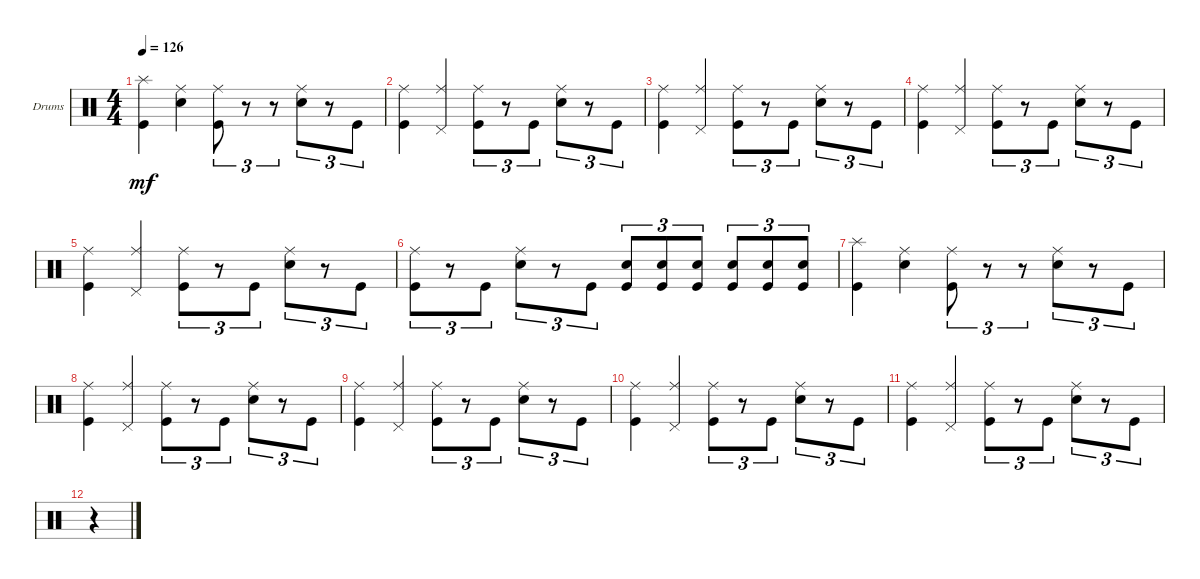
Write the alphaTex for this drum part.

\defaultSystemsLayout 4
\bracketExtendMode groupsimilarinstruments
\firstSystemTrackNameOrientation horizontal
\otherSystemsTrackNameOrientation horizontal
\track ("Drumkit" "Drums") {instrument percussion}
\staff {score}
\articulation defaults
\ts (4 4)
\tempo 126
\clef neutral
\ks c
("Splash (hit)" "Kick (hit)").4{dy mf} ("Ride (middle)" "Snare (hit) 2").4 ("Ride (middle)" "Kick (hit)").8{tu (3 2)} r.8{tu (3 2)} r.8{tu (3 2)} ("Ride (middle)" "Snare (hit) 2").8{tu (3 2)} r.8{tu (3 2)} "Kick (hit)".8{tu (3 2)} |
("Ride (middle)" "Kick (hit)").4 ("Ride (middle)" "Pedal Hi-Hat (hit)").4 ("Ride (middle)" "Kick (hit)").8{tu (3 2)} r.8{tu (3 2)} "Kick (hit)".8{tu (3 2)} ("Ride (middle)" "Snare (hit) 2").8{tu (3 2)} r.8{tu (3 2)} "Kick (hit)".8{tu (3 2)} |
("Ride (middle)" "Kick (hit)").4 ("Ride (middle)" "Pedal Hi-Hat (hit)").4 ("Ride (middle)" "Kick (hit)").8{tu (3 2)} r.8{tu (3 2)} "Kick (hit)".8{tu (3 2)} ("Ride (middle)" "Snare (hit) 2").8{tu (3 2)} r.8{tu (3 2)} "Kick (hit)".8{tu (3 2)} |
("Ride (middle)" "Kick (hit)").4 ("Ride (middle)" "Pedal Hi-Hat (hit)").4 ("Ride (middle)" "Kick (hit)").8{tu (3 2)} r.8{tu (3 2)} "Kick (hit)".8{tu (3 2)} ("Ride (middle)" "Snare (hit) 2").8{tu (3 2)} r.8{tu (3 2)} "Kick (hit)".8{tu (3 2)} |
("Ride (middle)" "Kick (hit)").4 ("Ride (middle)" "Pedal Hi-Hat (hit)").4 ("Ride (middle)" "Kick (hit)").8{tu (3 2)} r.8{tu (3 2)} "Kick (hit)".8{tu (3 2)} ("Ride (middle)" "Snare (hit) 2").8{tu (3 2)} r.8{tu (3 2)} "Kick (hit)".8{tu (3 2)} |
("Ride (middle)" "Kick (hit)").8{tu (3 2)} r.8{tu (3 2)} "Kick (hit)".8{tu (3 2)} ("Ride (middle)" "Snare (hit) 2").8{tu (3 2)} r.8{tu (3 2)} "Kick (hit)".8{tu (3 2)} ("Kick (hit)" "Snare (hit) 2").8{tu (3 2)} ("Kick (hit)" "Snare (hit) 2").8{tu (3 2)} ("Kick (hit)" "Snare (hit) 2").8{tu (3 2)} ("Kick (hit)" "Snare (hit) 2").8{tu (3 2)} ("Kick (hit)" "Snare (hit) 2").8{tu (3 2)} ("Kick (hit)" "Snare (hit) 2").8{tu (3 2)} |
("Splash (hit)" "Kick (hit)").4 ("Ride (middle)" "Snare (hit) 2").4 ("Ride (middle)" "Kick (hit)").8{tu (3 2)} r.8{tu (3 2)} r.8{tu (3 2)} ("Ride (middle)" "Snare (hit) 2").8{tu (3 2)} r.8{tu (3 2)} "Kick (hit)".8{tu (3 2)} |
("Ride (middle)" "Kick (hit)").4 ("Ride (middle)" "Pedal Hi-Hat (hit)").4 ("Ride (middle)" "Kick (hit)").8{tu (3 2)} r.8{tu (3 2)} "Kick (hit)".8{tu (3 2)} ("Ride (middle)" "Snare (hit) 2").8{tu (3 2)} r.8{tu (3 2)} "Kick (hit)".8{tu (3 2)} |
("Ride (middle)" "Kick (hit)").4 ("Ride (middle)" "Pedal Hi-Hat (hit)").4 ("Ride (middle)" "Kick (hit)").8{tu (3 2)} r.8{tu (3 2)} "Kick (hit)".8{tu (3 2)} ("Ride (middle)" "Snare (hit) 2").8{tu (3 2)} r.8{tu (3 2)} "Kick (hit)".8{tu (3 2)} |
("Ride (middle)" "Kick (hit)").4 ("Ride (middle)" "Pedal Hi-Hat (hit)").4 ("Ride (middle)" "Kick (hit)").8{tu (3 2)} r.8{tu (3 2)} "Kick (hit)".8{tu (3 2)} ("Ride (middle)" "Snare (hit) 2").8{tu (3 2)} r.8{tu (3 2)} "Kick (hit)".8{tu (3 2)} |
("Ride (middle)" "Kick (hit)").4 ("Ride (middle)" "Pedal Hi-Hat (hit)").4 ("Ride (middle)" "Kick (hit)").8{tu (3 2)} r.8{tu (3 2)} "Kick (hit)".8{tu (3 2)} ("Ride (middle)" "Snare (hit) 2").8{tu (3 2)} r.8{tu (3 2)} "Kick (hit)".8{tu (3 2)} |
r.4
